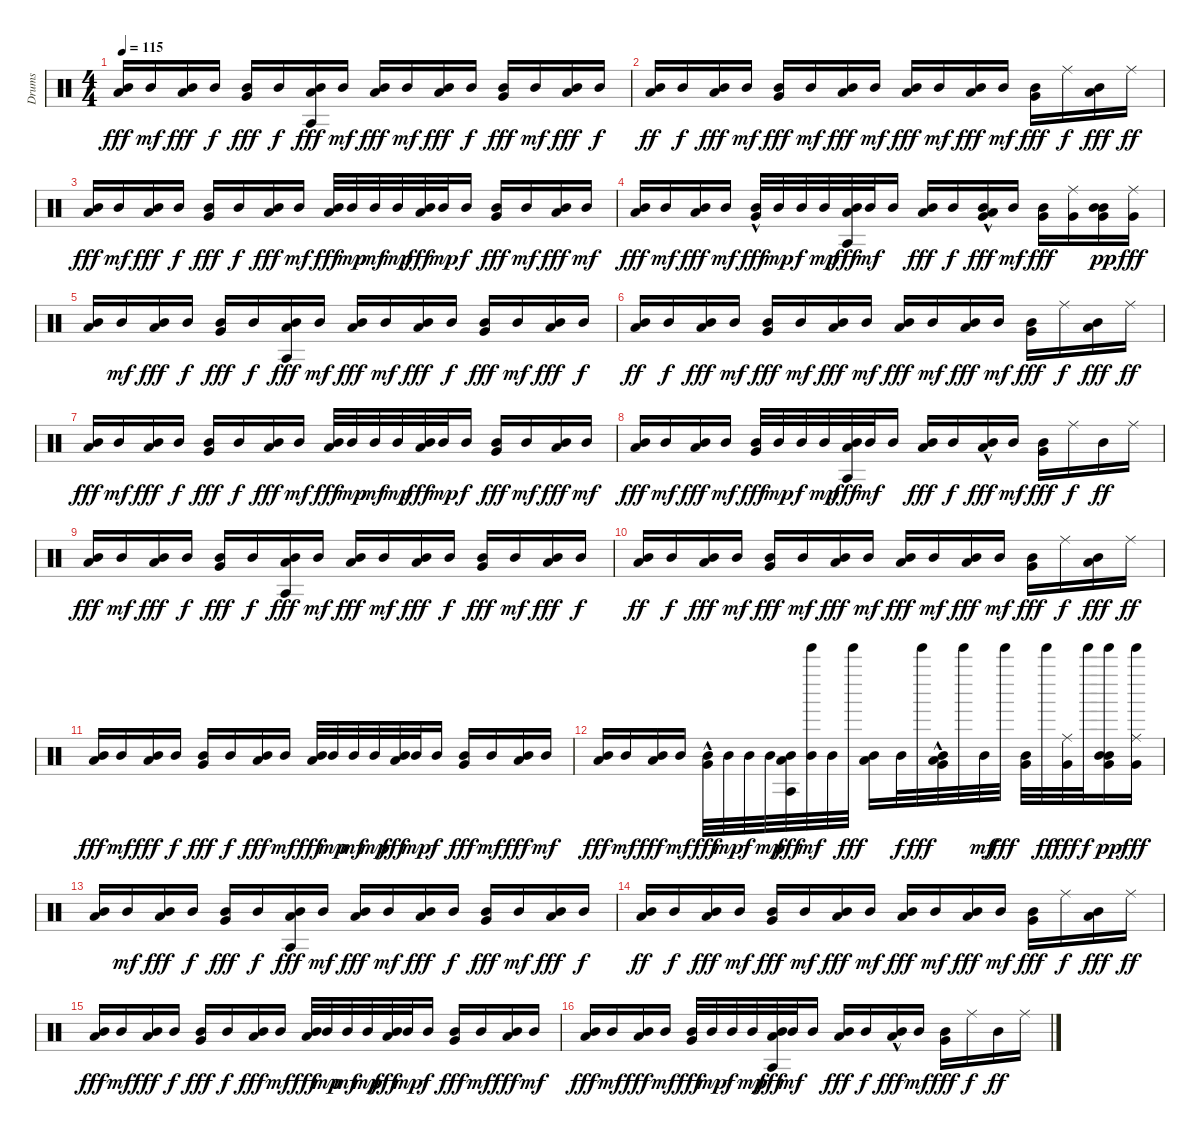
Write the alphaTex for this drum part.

\track ("Drums" "Drums") {instrument percussion}
\staff {score}
\articulation defaults
\ts (4 4)
\tempo 115
\clef neutral
\ks c
("Mid Tom (hit)" "Low Floor Tom (hit)").16{dy fff} "Mid Tom (hit)".16{dy mf} ("Mid Tom (hit)" "Low Floor Tom (hit)").16{dy fff} "Mid Tom (hit)".16{dy f} ("Mid Tom (hit)" "Very Low Tom (hit)").16{dy fff} "Mid Tom (hit)".16{dy f} ("Mid Tom (hit)" "Agogo tow (hit)" "Low Floor Tom (hit)").16{dy fff} "Mid Tom (hit)".16{dy mf} ("Mid Tom (hit)" "Low Floor Tom (hit)").16{dy fff} "Mid Tom (hit)".16{dy mf} ("Mid Tom (hit)" "Low Floor Tom (hit)").16{dy fff} "Mid Tom (hit)".16{dy f} ("Mid Tom (hit)" "Very Low Tom (hit)").16{dy fff} "Mid Tom (hit)".16{dy mf} ("Mid Tom (hit)" "Low Floor Tom (hit)").16{dy fff} "Mid Tom (hit)".16{dy f} |
("Mid Tom (hit)" "Low Floor Tom (hit)").16{dy ff} "Mid Tom (hit)".16{dy f} ("Mid Tom (hit)" "Low Floor Tom (hit)").16{dy fff} "Mid Tom (hit)".16{dy mf} ("Mid Tom (hit)" "Very Low Tom (hit)").16{dy fff} "Mid Tom (hit)".16{dy mf} ("Mid Tom (hit)" "Low Floor Tom (hit)").16{dy fff} "Mid Tom (hit)".16{dy mf} ("Mid Tom (hit)" "Low Floor Tom (hit)").16{dy fff} "Mid Tom (hit)".16{dy mf} ("Mid Tom (hit)" "Low Floor Tom (hit)").16{dy fff} "Mid Tom (hit)".16{dy mf} ("Mid Tom (hit)" "Very Low Tom (hit)").16{dy fff} "Ride (middle)".16{dy f} ("Mid Tom (hit)" "Low Floor Tom (hit)").16{dy fff} "Ride (middle)".16{dy ff} |
("Mid Tom (hit)" "Low Floor Tom (hit)").16{dy fff} "Mid Tom (hit)".16{dy mf} ("Mid Tom (hit)" "Low Floor Tom (hit)").16{dy fff} "Mid Tom (hit)".16{dy f} ("Mid Tom (hit)" "Very Low Tom (hit)").16{dy fff} "Mid Tom (hit)".16{dy f} ("Mid Tom (hit)" "Low Floor Tom (hit)").16{dy fff} "Mid Tom (hit)".16{dy mf} ("Mid Tom (hit)" "Low Floor Tom (hit)").32{dy fff} "Mid Tom (hit)".32{dy mp} "Mid Tom (hit)".32{dy mf} "Mid Tom (hit)".32{dy mp} ("Mid Tom (hit)" "Low Floor Tom (hit)").32{dy fff} "Mid Tom (hit)".32{dy mp} "Mid Tom (hit)".16{dy f} ("Mid Tom (hit)" "Very Low Tom (hit)").16{dy fff} "Mid Tom (hit)".16{dy mf} ("Mid Tom (hit)" "Low Floor Tom (hit)").16{dy fff} "Mid Tom (hit)".16{dy mf} |
("Mid Tom (hit)" "Low Floor Tom (hit)").16{dy fff} "Mid Tom (hit)".16{dy mf} ("Mid Tom (hit)" "Low Floor Tom (hit)").16{dy fff} "Mid Tom (hit)".16{dy mf} ("Mid Tom (hit)" "Very Low Tom (hit)"{hac}).32{dy fff} "Mid Tom (hit)".32{dy mp} "Mid Tom (hit)".32{dy f} "Mid Tom (hit)".32{dy mp} ("Mid Tom (hit)" "Agogo tow (hit)" "Low Floor Tom (hit)").32{dy fff} "Mid Tom (hit)".32{dy mf} "Mid Tom (hit)".16 ("Mid Tom (hit)" "Low Floor Tom (hit)").16{dy fff} "Mid Tom (hit)".16{dy f} ("Mid Tom (hit)" "Very Low Tom (hit)" "Low Floor Tom (hit)"{hac}).16{dy fff} "Mid Tom (hit)".16{dy mf} ("Mid Tom (hit)" "Very Low Tom (hit)").16{dy fff} ("Ride (middle)" "Very Low Tom (hit)").16 ("Mid Tom (hit)" "Mid Tom (hit)" "Very Low Tom (hit)").16{dy pp} ("Ride (middle)" "Very Low Tom (hit)").16{dy fff} |
("Mid Tom (hit)" "Low Floor Tom (hit)").16 "Mid Tom (hit)".16{dy mf} ("Mid Tom (hit)" "Low Floor Tom (hit)").16{dy fff} "Mid Tom (hit)".16{dy f} ("Mid Tom (hit)" "Very Low Tom (hit)").16{dy fff} "Mid Tom (hit)".16{dy f} ("Mid Tom (hit)" "Agogo tow (hit)" "Low Floor Tom (hit)").16{dy fff} "Mid Tom (hit)".16{dy mf} ("Mid Tom (hit)" "Low Floor Tom (hit)").16{dy fff} "Mid Tom (hit)".16{dy mf} ("Mid Tom (hit)" "Low Floor Tom (hit)").16{dy fff} "Mid Tom (hit)".16{dy f} ("Mid Tom (hit)" "Very Low Tom (hit)").16{dy fff} "Mid Tom (hit)".16{dy mf} ("Mid Tom (hit)" "Low Floor Tom (hit)").16{dy fff} "Mid Tom (hit)".16{dy f} |
("Mid Tom (hit)" "Low Floor Tom (hit)").16{dy ff} "Mid Tom (hit)".16{dy f} ("Mid Tom (hit)" "Low Floor Tom (hit)").16{dy fff} "Mid Tom (hit)".16{dy mf} ("Mid Tom (hit)" "Very Low Tom (hit)").16{dy fff} "Mid Tom (hit)".16{dy mf} ("Mid Tom (hit)" "Low Floor Tom (hit)").16{dy fff} "Mid Tom (hit)".16{dy mf} ("Mid Tom (hit)" "Low Floor Tom (hit)").16{dy fff} "Mid Tom (hit)".16{dy mf} ("Mid Tom (hit)" "Low Floor Tom (hit)").16{dy fff} "Mid Tom (hit)".16{dy mf} ("Mid Tom (hit)" "Very Low Tom (hit)").16{dy fff} "Ride (middle)".16{dy f} ("Mid Tom (hit)" "Low Floor Tom (hit)").16{dy fff} "Ride (middle)".16{dy ff} |
("Mid Tom (hit)" "Low Floor Tom (hit)").16{dy fff} "Mid Tom (hit)".16{dy mf} ("Mid Tom (hit)" "Low Floor Tom (hit)").16{dy fff} "Mid Tom (hit)".16{dy f} ("Mid Tom (hit)" "Very Low Tom (hit)").16{dy fff} "Mid Tom (hit)".16{dy f} ("Mid Tom (hit)" "Low Floor Tom (hit)").16{dy fff} "Mid Tom (hit)".16{dy mf} ("Mid Tom (hit)" "Low Floor Tom (hit)").32{dy fff} "Mid Tom (hit)".32{dy mp} "Mid Tom (hit)".32{dy mf} "Mid Tom (hit)".32{dy mp} ("Mid Tom (hit)" "Low Floor Tom (hit)").32{dy fff} "Mid Tom (hit)".32{dy mp} "Mid Tom (hit)".16{dy f} ("Mid Tom (hit)" "Very Low Tom (hit)").16{dy fff} "Mid Tom (hit)".16{dy mf} ("Mid Tom (hit)" "Low Floor Tom (hit)").16{dy fff} "Mid Tom (hit)".16{dy mf} |
("Mid Tom (hit)" "Low Floor Tom (hit)").16{dy fff} "Mid Tom (hit)".16{dy mf} ("Mid Tom (hit)" "Low Floor Tom (hit)").16{dy fff} "Mid Tom (hit)".16{dy mf} ("Mid Tom (hit)" "Very Low Tom (hit)").32{dy fff} "Mid Tom (hit)".32{dy mp} "Mid Tom (hit)".32{dy f} "Mid Tom (hit)".32{dy mp} ("Mid Tom (hit)" "Agogo tow (hit)" "Low Floor Tom (hit)").32{dy fff} "Mid Tom (hit)".32{dy mf} "Mid Tom (hit)".16 ("Mid Tom (hit)" "Low Floor Tom (hit)").16{dy fff} "Mid Tom (hit)".16{dy f} ("Mid Tom (hit)" "Low Floor Tom (hit)"{hac}).16{dy fff} "Mid Tom (hit)".16{dy mf} ("Mid Tom (hit)" "Very Low Tom (hit)").16{dy fff} "Ride (middle)".16{dy f} "Mid Tom (hit)".16{dy ff} "Ride (middle)".16 |
("Mid Tom (hit)" "Low Floor Tom (hit)").16{dy fff} "Mid Tom (hit)".16{dy mf} ("Mid Tom (hit)" "Low Floor Tom (hit)").16{dy fff} "Mid Tom (hit)".16{dy f} ("Mid Tom (hit)" "Very Low Tom (hit)").16{dy fff} "Mid Tom (hit)".16{dy f} ("Mid Tom (hit)" "Agogo tow (hit)" "Low Floor Tom (hit)").16{dy fff} "Mid Tom (hit)".16{dy mf} ("Mid Tom (hit)" "Low Floor Tom (hit)").16{dy fff} "Mid Tom (hit)".16{dy mf} ("Mid Tom (hit)" "Low Floor Tom (hit)").16{dy fff} "Mid Tom (hit)".16{dy f} ("Mid Tom (hit)" "Very Low Tom (hit)").16{dy fff} "Mid Tom (hit)".16{dy mf} ("Mid Tom (hit)" "Low Floor Tom (hit)").16{dy fff} "Mid Tom (hit)".16{dy f} |
("Mid Tom (hit)" "Low Floor Tom (hit)").16{dy ff} "Mid Tom (hit)".16{dy f} ("Mid Tom (hit)" "Low Floor Tom (hit)").16{dy fff} "Mid Tom (hit)".16{dy mf} ("Mid Tom (hit)" "Very Low Tom (hit)").16{dy fff} "Mid Tom (hit)".16{dy mf} ("Mid Tom (hit)" "Low Floor Tom (hit)").16{dy fff} "Mid Tom (hit)".16{dy mf} ("Mid Tom (hit)" "Low Floor Tom (hit)").16{dy fff} "Mid Tom (hit)".16{dy mf} ("Mid Tom (hit)" "Low Floor Tom (hit)").16{dy fff} "Mid Tom (hit)".16{dy mf} ("Mid Tom (hit)" "Very Low Tom (hit)").16{dy fff} "Ride (middle)".16{dy f} ("Mid Tom (hit)" "Low Floor Tom (hit)").16{dy fff} "Ride (middle)".16{dy ff} |
("Mid Tom (hit)" "Low Floor Tom (hit)").16{dy fff} "Mid Tom (hit)".16{dy mf} ("Mid Tom (hit)" "Low Floor Tom (hit)").16{dy fff} "Mid Tom (hit)".16{dy f} ("Mid Tom (hit)" "Very Low Tom (hit)").16{dy fff} "Mid Tom (hit)".16{dy f} ("Mid Tom (hit)" "Low Floor Tom (hit)").16{dy fff} "Mid Tom (hit)".16{dy mf} ("Mid Tom (hit)" "Low Floor Tom (hit)").32{dy fff} "Mid Tom (hit)".32{dy mp} "Mid Tom (hit)".32{dy mf} "Mid Tom (hit)".32{dy mp} ("Mid Tom (hit)" "Low Floor Tom (hit)").32{dy fff} "Mid Tom (hit)".32{dy mp} "Mid Tom (hit)".16{dy f} ("Mid Tom (hit)" "Very Low Tom (hit)").16{dy fff} "Mid Tom (hit)".16{dy mf} ("Mid Tom (hit)" "Low Floor Tom (hit)").16{dy fff} "Mid Tom (hit)".16{dy mf} |
("Mid Tom (hit)" "Low Floor Tom (hit)").16{dy fff} "Mid Tom (hit)".16{dy mf} ("Mid Tom (hit)" "Low Floor Tom (hit)").16{dy fff} "Mid Tom (hit)".16{dy mf} ("Mid Tom (hit)" "Very Low Tom (hit)"{hac}).32{dy fff} "Mid Tom (hit)".32{dy mp} "Mid Tom (hit)".32{dy f} "Mid Tom (hit)".32{dy mp} ("Mid Tom (hit)" "Agogo tow (hit)" "Low Floor Tom (hit)").32{dy fff} ("Tinkle Bell (hit)" "Mid Tom (hit)").32{dy mf} "Mid Tom (hit)".32 "Tinkle Bell (hit)".32{dy fff} ("Mid Tom (hit)" "Low Floor Tom (hit)").16 "Mid Tom (hit)".32{dy f} "Tinkle Bell (hit)".32{dy fff} ("Mid Tom (hit)" "Very Low Tom (hit)" "Low Floor Tom (hit)"{hac}).32 "Tinkle Bell (hit)".32 "Mid Tom (hit)".32{dy mf} "Tinkle Bell (hit)".32{dy fff} ("Mid Tom (hit)" "Very Low Tom (hit)").32 "Tinkle Bell (hit)".32{dy ff} ("Ride (middle)" "Very Low Tom (hit)").32{dy fff} "Tinkle Bell (hit)".32{dy f} ("Mid Tom (hit)" "Mid Tom (hit)" "Very Low Tom (hit)" "Tinkle Bell (hit)").16{dy pp} ("Ride (middle)" "Very Low Tom (hit)" "Tinkle Bell (hit)").16{dy fff} |
("Mid Tom (hit)" "Low Floor Tom (hit)").16 "Mid Tom (hit)".16{dy mf} ("Mid Tom (hit)" "Low Floor Tom (hit)").16{dy fff} "Mid Tom (hit)".16{dy f} ("Mid Tom (hit)" "Very Low Tom (hit)").16{dy fff} "Mid Tom (hit)".16{dy f} ("Mid Tom (hit)" "Agogo tow (hit)" "Low Floor Tom (hit)").16{dy fff} "Mid Tom (hit)".16{dy mf} ("Mid Tom (hit)" "Low Floor Tom (hit)").16{dy fff} "Mid Tom (hit)".16{dy mf} ("Mid Tom (hit)" "Low Floor Tom (hit)").16{dy fff} "Mid Tom (hit)".16{dy f} ("Mid Tom (hit)" "Very Low Tom (hit)").16{dy fff} "Mid Tom (hit)".16{dy mf} ("Mid Tom (hit)" "Low Floor Tom (hit)").16{dy fff} "Mid Tom (hit)".16{dy f} |
("Mid Tom (hit)" "Low Floor Tom (hit)").16{dy ff} "Mid Tom (hit)".16{dy f} ("Mid Tom (hit)" "Low Floor Tom (hit)").16{dy fff} "Mid Tom (hit)".16{dy mf} ("Mid Tom (hit)" "Very Low Tom (hit)").16{dy fff} "Mid Tom (hit)".16{dy mf} ("Mid Tom (hit)" "Low Floor Tom (hit)").16{dy fff} "Mid Tom (hit)".16{dy mf} ("Mid Tom (hit)" "Low Floor Tom (hit)").16{dy fff} "Mid Tom (hit)".16{dy mf} ("Mid Tom (hit)" "Low Floor Tom (hit)").16{dy fff} "Mid Tom (hit)".16{dy mf} ("Mid Tom (hit)" "Very Low Tom (hit)").16{dy fff} "Ride (middle)".16{dy f} ("Mid Tom (hit)" "Low Floor Tom (hit)").16{dy fff} "Ride (middle)".16{dy ff} |
("Mid Tom (hit)" "Low Floor Tom (hit)").16{dy fff} "Mid Tom (hit)".16{dy mf} ("Mid Tom (hit)" "Low Floor Tom (hit)").16{dy fff} "Mid Tom (hit)".16{dy f} ("Mid Tom (hit)" "Very Low Tom (hit)").16{dy fff} "Mid Tom (hit)".16{dy f} ("Mid Tom (hit)" "Low Floor Tom (hit)").16{dy fff} "Mid Tom (hit)".16{dy mf} ("Mid Tom (hit)" "Low Floor Tom (hit)").32{dy fff} "Mid Tom (hit)".32{dy mp} "Mid Tom (hit)".32{dy mf} "Mid Tom (hit)".32{dy mp} ("Mid Tom (hit)" "Low Floor Tom (hit)").32{dy fff} "Mid Tom (hit)".32{dy mp} "Mid Tom (hit)".16{dy f} ("Mid Tom (hit)" "Very Low Tom (hit)").16{dy fff} "Mid Tom (hit)".16{dy mf} ("Mid Tom (hit)" "Low Floor Tom (hit)").16{dy fff} "Mid Tom (hit)".16{dy mf} |
("Mid Tom (hit)" "Low Floor Tom (hit)").16{dy fff} "Mid Tom (hit)".16{dy mf} ("Mid Tom (hit)" "Low Floor Tom (hit)").16{dy fff} "Mid Tom (hit)".16{dy mf} ("Mid Tom (hit)" "Very Low Tom (hit)").32{dy fff} "Mid Tom (hit)".32{dy mp} "Mid Tom (hit)".32{dy f} "Mid Tom (hit)".32{dy mp} ("Mid Tom (hit)" "Agogo tow (hit)" "Low Floor Tom (hit)").32{dy fff} "Mid Tom (hit)".32{dy mf} "Mid Tom (hit)".16 ("Mid Tom (hit)" "Low Floor Tom (hit)").16{dy fff} "Mid Tom (hit)".16{dy f} ("Mid Tom (hit)" "Low Floor Tom (hit)"{hac}).16{dy fff} "Mid Tom (hit)".16{dy mf} ("Mid Tom (hit)" "Very Low Tom (hit)").16{dy fff} "Ride (middle)".16{dy f} "Mid Tom (hit)".16{dy ff} "Ride (middle)".16
